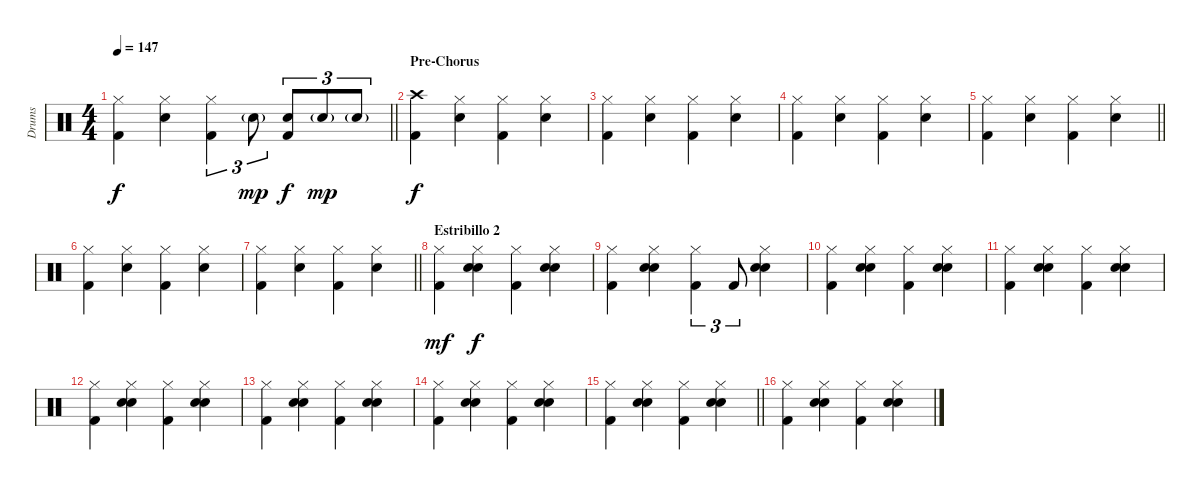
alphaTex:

\track ("Drums" "Drums") {instrument percussion}
\staff {score}
\articulation defaults
\ts (4 4)
\tempo 147
\clef neutral
\barLineRight lightlight
\ks c
("Hi-Hat (closed)" "Kick (hit) 2").4{dy f} ("Hi-Hat (closed)" "Electric Snare (hit)").4 ("Hi-Hat (closed)" "Kick (hit) 2").4{tu (3 2)} "Electric Snare (hit)"{g}.8{tu (3 2) dy mp} ("Electric Snare (hit)" "Kick (hit) 2").8{tu (3 2) dy f} "Electric Snare (hit)"{g}.8{tu (3 2) dy mp} "Electric Snare (hit)"{g}.8{tu (3 2)} |
\section ("" "Pre-Chorus")
("Crash high (hit)" "Kick (hit) 2").4{dy f} ("Hi-Hat (closed)" "Electric Snare (hit)").4 ("Hi-Hat (closed)" "Kick (hit) 2").4 ("Hi-Hat (closed)" "Electric Snare (hit)").4 |
("Hi-Hat (closed)" "Kick (hit) 2").4 ("Hi-Hat (closed)" "Electric Snare (hit)").4 ("Hi-Hat (closed)" "Kick (hit) 2").4 ("Hi-Hat (closed)" "Electric Snare (hit)").4 |
("Hi-Hat (closed)" "Kick (hit) 2").4 ("Hi-Hat (closed)" "Electric Snare (hit)").4 ("Hi-Hat (closed)" "Kick (hit) 2").4 ("Hi-Hat (closed)" "Electric Snare (hit)").4 |
\barLineRight lightlight
("Hi-Hat (closed)" "Kick (hit) 2").4 ("Hi-Hat (closed)" "Electric Snare (hit)").4 ("Hi-Hat (closed)" "Kick (hit) 2").4 ("Hi-Hat (closed)" "Electric Snare (hit)").4 |
("Hi-Hat (closed)" "Kick (hit) 2").4 ("Hi-Hat (closed)" "Electric Snare (hit)").4 ("Hi-Hat (closed)" "Kick (hit) 2").4 ("Hi-Hat (closed)" "Electric Snare (hit)").4 |
\barLineRight lightlight
("Hi-Hat (closed)" "Kick (hit) 2").4 ("Hi-Hat (closed)" "Electric Snare (hit)").4 ("Hi-Hat (closed)" "Kick (hit) 2").4 ("Hi-Hat (closed)" "Electric Snare (hit)").4 |
\section ("" "Estribillo 2")
("Hi-Hat (closed)" "Kick (hit) 2").4{dy mf} ("Hi-Hat (closed)" "Electric Snare (hit)" "Hand Clap (hit)").4{dy f} ("Hi-Hat (closed)" "Kick (hit) 2").4 ("Hi-Hat (closed)" "Electric Snare (hit)" "Hand Clap (hit)").4 |
("Hi-Hat (closed)" "Kick (hit) 2").4 ("Hi-Hat (closed)" "Electric Snare (hit)" "Hand Clap (hit)").4 ("Hi-Hat (closed)" "Kick (hit) 2").4{tu (3 2)} "Kick (hit) 2".8{tu (3 2)} ("Hi-Hat (closed)" "Electric Snare (hit)" "Hand Clap (hit)").4 |
("Hi-Hat (closed)" "Kick (hit) 2").4 ("Hi-Hat (closed)" "Electric Snare (hit)" "Hand Clap (hit)").4 ("Hi-Hat (closed)" "Kick (hit) 2").4 ("Hi-Hat (closed)" "Electric Snare (hit)" "Hand Clap (hit)").4 |
("Hi-Hat (closed)" "Kick (hit) 2").4 ("Hi-Hat (closed)" "Electric Snare (hit)" "Hand Clap (hit)").4 ("Hi-Hat (closed)" "Kick (hit) 2").4 ("Hi-Hat (closed)" "Electric Snare (hit)" "Hand Clap (hit)").4 |
("Hi-Hat (closed)" "Kick (hit) 2").4 ("Hi-Hat (closed)" "Electric Snare (hit)" "Hand Clap (hit)").4 ("Hi-Hat (closed)" "Kick (hit) 2").4 ("Hi-Hat (closed)" "Electric Snare (hit)" "Hand Clap (hit)").4 |
("Hi-Hat (closed)" "Kick (hit) 2").4 ("Hi-Hat (closed)" "Electric Snare (hit)" "Hand Clap (hit)").4 ("Hi-Hat (closed)" "Kick (hit) 2").4 ("Hi-Hat (closed)" "Electric Snare (hit)" "Hand Clap (hit)").4 |
("Hi-Hat (closed)" "Kick (hit) 2").4 ("Hi-Hat (closed)" "Electric Snare (hit)" "Hand Clap (hit)").4 ("Hi-Hat (closed)" "Kick (hit) 2").4 ("Hi-Hat (closed)" "Electric Snare (hit)" "Hand Clap (hit)").4 |
\barLineRight lightlight
("Hi-Hat (closed)" "Kick (hit) 2").4 ("Hi-Hat (closed)" "Electric Snare (hit)" "Hand Clap (hit)").4 ("Hi-Hat (closed)" "Kick (hit) 2").4 ("Hi-Hat (closed)" "Electric Snare (hit)" "Hand Clap (hit)").4 |
("Hi-Hat (closed)" "Kick (hit) 2").4 ("Hi-Hat (closed)" "Electric Snare (hit)" "Hand Clap (hit)").4 ("Hi-Hat (closed)" "Kick (hit) 2").4 ("Hi-Hat (closed)" "Electric Snare (hit)" "Hand Clap (hit)").4
